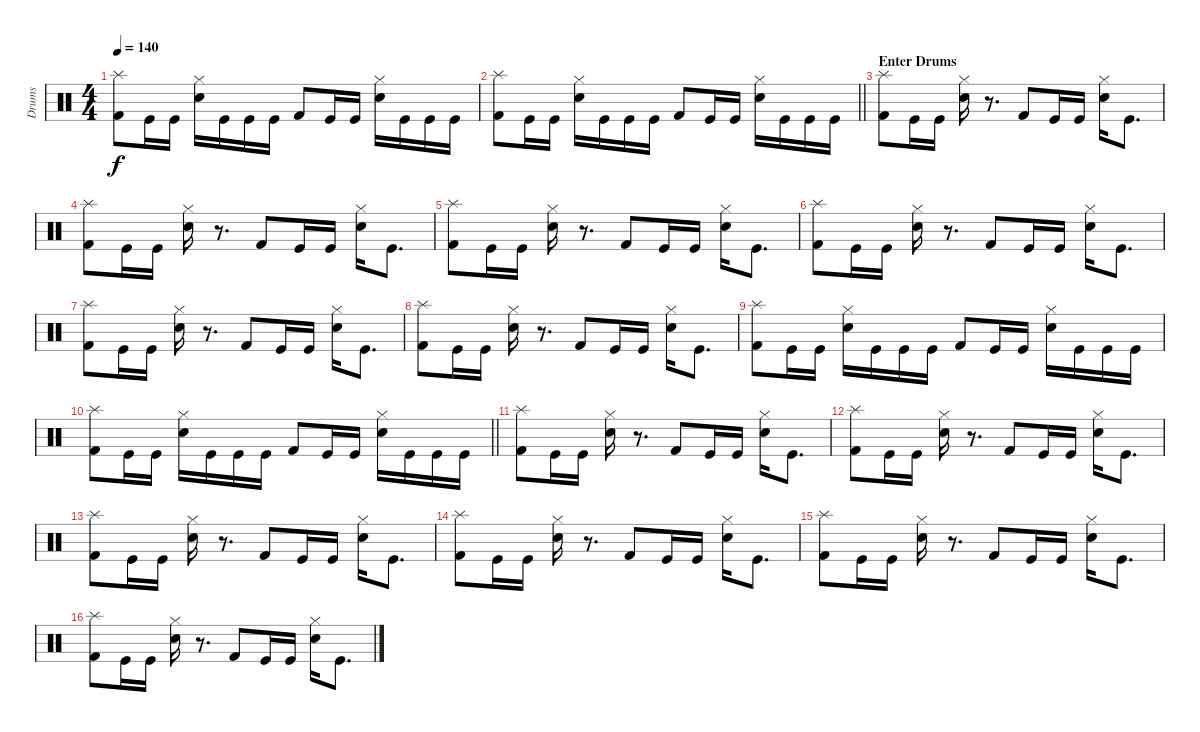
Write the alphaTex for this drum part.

\track ("Drums" "Drums") {instrument percussion}
\staff {score}
\articulation defaults
\ts (4 4)
\tempo 140
\clef neutral
\ks c
("Splash (hit)" "Kick (hit) 2").8{dy f} "Kick (hit)".16 "Kick (hit)".16 ("Snare (hit) 2" "Hi-Hat (closed)").16 "Kick (hit)".16 "Kick (hit)".16 "Kick (hit)".16 "Kick (hit) 2".8 "Kick (hit)".16 "Kick (hit)".16 ("Snare (hit) 2" "Hi-Hat (closed)").16 "Kick (hit)".16 "Kick (hit)".16 "Kick (hit)".16 |
\barLineRight lightlight
("Splash (hit)" "Kick (hit) 2").8 "Kick (hit)".16 "Kick (hit)".16 ("Snare (hit) 2" "Hi-Hat (closed)").16 "Kick (hit)".16 "Kick (hit)".16 "Kick (hit)".16 "Kick (hit) 2".8 "Kick (hit)".16 "Kick (hit)".16 ("Snare (hit) 2" "Hi-Hat (closed)").16 "Kick (hit)".16 "Kick (hit)".16 "Kick (hit)".16 |
\section ("" "Enter Drums")
("Splash (hit)" "Kick (hit) 2").8 "Kick (hit)".16 "Kick (hit)".16 ("Snare (hit) 2" "Hi-Hat (closed)").16 r.8{d} "Kick (hit) 2".8 "Kick (hit)".16 "Kick (hit)".16 ("Snare (hit) 2" "Hi-Hat (closed)").16 "Kick (hit)".8{d} |
("Splash (hit)" "Kick (hit) 2").8 "Kick (hit)".16 "Kick (hit)".16 ("Snare (hit) 2" "Hi-Hat (closed)").16 r.8{d} "Kick (hit) 2".8 "Kick (hit)".16 "Kick (hit)".16 ("Snare (hit) 2" "Hi-Hat (closed)").16 "Kick (hit)".8{d} |
("Splash (hit)" "Kick (hit) 2").8 "Kick (hit)".16 "Kick (hit)".16 ("Snare (hit) 2" "Hi-Hat (closed)").16 r.8{d} "Kick (hit) 2".8 "Kick (hit)".16 "Kick (hit)".16 ("Snare (hit) 2" "Hi-Hat (closed)").16 "Kick (hit)".8{d} |
("Splash (hit)" "Kick (hit) 2").8 "Kick (hit)".16 "Kick (hit)".16 ("Snare (hit) 2" "Hi-Hat (closed)").16 r.8{d} "Kick (hit) 2".8 "Kick (hit)".16 "Kick (hit)".16 ("Snare (hit) 2" "Hi-Hat (closed)").16 "Kick (hit)".8{d} |
("Splash (hit)" "Kick (hit) 2").8 "Kick (hit)".16 "Kick (hit)".16 ("Snare (hit) 2" "Hi-Hat (closed)").16 r.8{d} "Kick (hit) 2".8 "Kick (hit)".16 "Kick (hit)".16 ("Snare (hit) 2" "Hi-Hat (closed)").16 "Kick (hit)".8{d} |
("Splash (hit)" "Kick (hit) 2").8 "Kick (hit)".16 "Kick (hit)".16 ("Snare (hit) 2" "Hi-Hat (closed)").16 r.8{d} "Kick (hit) 2".8 "Kick (hit)".16 "Kick (hit)".16 ("Snare (hit) 2" "Hi-Hat (closed)").16 "Kick (hit)".8{d} |
("Splash (hit)" "Kick (hit) 2").8 "Kick (hit)".16 "Kick (hit)".16 ("Snare (hit) 2" "Hi-Hat (closed)").16 "Kick (hit)".16 "Kick (hit)".16 "Kick (hit)".16 "Kick (hit) 2".8 "Kick (hit)".16 "Kick (hit)".16 ("Snare (hit) 2" "Hi-Hat (closed)").16 "Kick (hit)".16 "Kick (hit)".16 "Kick (hit)".16 |
\barLineRight lightlight
("Splash (hit)" "Kick (hit) 2").8 "Kick (hit)".16 "Kick (hit)".16 ("Snare (hit) 2" "Hi-Hat (closed)").16 "Kick (hit)".16 "Kick (hit)".16 "Kick (hit)".16 "Kick (hit) 2".8 "Kick (hit)".16 "Kick (hit)".16 ("Snare (hit) 2" "Hi-Hat (closed)").16 "Kick (hit)".16 "Kick (hit)".16 "Kick (hit)".16 |
("Splash (hit)" "Kick (hit) 2").8 "Kick (hit)".16 "Kick (hit)".16 ("Snare (hit) 2" "Hi-Hat (closed)").16 r.8{d} "Kick (hit) 2".8 "Kick (hit)".16 "Kick (hit)".16 ("Snare (hit) 2" "Hi-Hat (closed)").16 "Kick (hit)".8{d} |
("Splash (hit)" "Kick (hit) 2").8 "Kick (hit)".16 "Kick (hit)".16 ("Snare (hit) 2" "Hi-Hat (closed)").16 r.8{d} "Kick (hit) 2".8 "Kick (hit)".16 "Kick (hit)".16 ("Snare (hit) 2" "Hi-Hat (closed)").16 "Kick (hit)".8{d} |
("Splash (hit)" "Kick (hit) 2").8 "Kick (hit)".16 "Kick (hit)".16 ("Snare (hit) 2" "Hi-Hat (closed)").16 r.8{d} "Kick (hit) 2".8 "Kick (hit)".16 "Kick (hit)".16 ("Snare (hit) 2" "Hi-Hat (closed)").16 "Kick (hit)".8{d} |
("Splash (hit)" "Kick (hit) 2").8 "Kick (hit)".16 "Kick (hit)".16 ("Snare (hit) 2" "Hi-Hat (closed)").16 r.8{d} "Kick (hit) 2".8 "Kick (hit)".16 "Kick (hit)".16 ("Snare (hit) 2" "Hi-Hat (closed)").16 "Kick (hit)".8{d} |
("Splash (hit)" "Kick (hit) 2").8 "Kick (hit)".16 "Kick (hit)".16 ("Snare (hit) 2" "Hi-Hat (closed)").16 r.8{d} "Kick (hit) 2".8 "Kick (hit)".16 "Kick (hit)".16 ("Snare (hit) 2" "Hi-Hat (closed)").16 "Kick (hit)".8{d} |
("Splash (hit)" "Kick (hit) 2").8 "Kick (hit)".16 "Kick (hit)".16 ("Snare (hit) 2" "Hi-Hat (closed)").16 r.8{d} "Kick (hit) 2".8 "Kick (hit)".16 "Kick (hit)".16 ("Snare (hit) 2" "Hi-Hat (closed)").16 "Kick (hit)".8{d}
